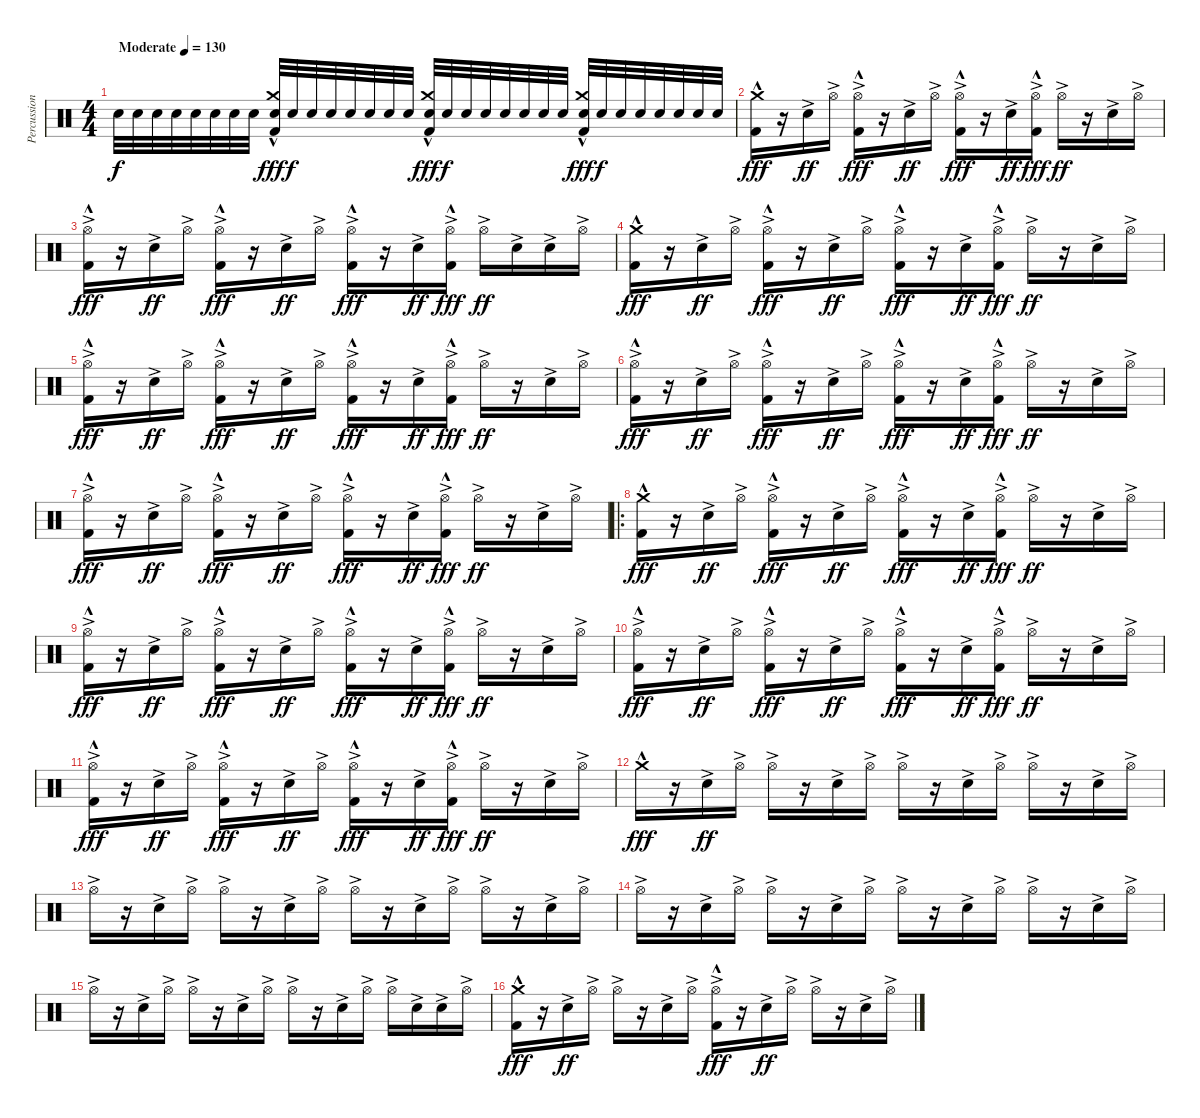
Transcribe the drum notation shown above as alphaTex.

\track ("Percussion" "Percussion") {instrument percussion}
\staff {score}
\articulation defaults
\ts (4 4)
\tempo (130 "Moderate")
\clef neutral
\ks c "Snare (hit) 2".32{dy f} "Snare (hit) 2".32 "Snare (hit) 2".32 "Snare (hit) 2".32 "Snare (hit) 2".32 "Snare (hit) 2".32 "Snare (hit) 2".32 "Snare (hit) 2".32
("Crash medium (hit)"{hac} "Snare (hit) 2" "Kick (hit) 2"{hac}).32{dy fff} "Snare (hit) 2".32{dy f} "Snare (hit) 2".32 "Snare (hit) 2".32 "Snare (hit) 2".32 "Snare (hit) 2".32 "Snare (hit) 2".32 "Snare (hit) 2".32 ("Crash medium (hit)"{hac} "Snare (hit) 2" "Kick (hit) 2"{hac}).32{dy fff} "Snare (hit) 2".32{dy f} "Snare (hit) 2".32 "Snare (hit) 2".32 "Snare (hit) 2".32 "Snare (hit) 2".32 "Snare (hit) 2".32 "Snare (hit) 2".32 ("Crash medium (hit)"{hac} "Snare (hit) 2" "Kick (hit) 2"{hac}).32{dy fff} "Snare (hit) 2".32{dy f} "Snare (hit) 2".32 "Snare (hit) 2".32 "Snare (hit) 2".32 "Snare (hit) 2".32 "Snare (hit) 2".32 "Snare (hit) 2".32 |
("Crash medium (hit)"{hac} "Kick (hit) 2"{hac}).16{dy fff} r.16 "Snare (hit) 2"{ac}.16{dy ff} "Hi-Hat (open)"{ac}.16 ("Hi-Hat (open)"{ac} "Kick (hit) 2"{hac}).16{dy fff} r.16 "Snare (hit) 2"{ac}.16{dy ff} "Hi-Hat (open)"{ac}.16 ("Hi-Hat (open)"{ac} "Kick (hit) 2"{hac}).16{dy fff} r.16 "Snare (hit) 2"{ac}.16{dy ff} ("Hi-Hat (open)"{ac} "Kick (hit) 2"{hac}).16{dy fff} "Hi-Hat (open)"{ac}.16{dy ff} r.16 "Snare (hit) 2"{ac}.16 "Hi-Hat (open)"{ac}.16 |
("Hi-Hat (open)"{ac} "Kick (hit) 2"{hac}).16{dy fff} r.16 "Snare (hit) 2"{ac}.16{dy ff} "Hi-Hat (open)"{ac}.16 ("Hi-Hat (open)"{ac} "Kick (hit) 2"{hac}).16{dy fff} r.16 "Snare (hit) 2"{ac}.16{dy ff} "Hi-Hat (open)"{ac}.16 ("Hi-Hat (open)"{ac} "Kick (hit) 2"{hac}).16{dy fff} r.16 "Snare (hit) 2"{ac}.16{dy ff} ("Hi-Hat (open)"{ac} "Kick (hit) 2"{hac}).16{dy fff} "Hi-Hat (open)"{ac}.16{dy ff} "Snare (hit) 2"{ac}.16 "Snare (hit) 2"{ac}.16 "Hi-Hat (open)"{ac}.16 |
("Crash medium (hit)"{hac} "Kick (hit) 2"{hac}).16{dy fff} r.16 "Snare (hit) 2"{ac}.16{dy ff} "Hi-Hat (open)"{ac}.16 ("Hi-Hat (open)"{ac} "Kick (hit) 2"{hac}).16{dy fff} r.16 "Snare (hit) 2"{ac}.16{dy ff} "Hi-Hat (open)"{ac}.16 ("Hi-Hat (open)"{ac} "Kick (hit) 2"{hac}).16{dy fff} r.16 "Snare (hit) 2"{ac}.16{dy ff} ("Hi-Hat (open)"{ac} "Kick (hit) 2"{hac}).16{dy fff} "Hi-Hat (open)"{ac}.16{dy ff} r.16 "Snare (hit) 2"{ac}.16 "Hi-Hat (open)"{ac}.16 |
("Hi-Hat (open)"{ac} "Kick (hit) 2"{hac}).16{dy fff} r.16 "Snare (hit) 2"{ac}.16{dy ff} "Hi-Hat (open)"{ac}.16 ("Hi-Hat (open)"{ac} "Kick (hit) 2"{hac}).16{dy fff} r.16 "Snare (hit) 2"{ac}.16{dy ff} "Hi-Hat (open)"{ac}.16 ("Hi-Hat (open)"{ac} "Kick (hit) 2"{hac}).16{dy fff} r.16 "Snare (hit) 2"{ac}.16{dy ff} ("Hi-Hat (open)"{ac} "Kick (hit) 2"{hac}).16{dy fff} "Hi-Hat (open)"{ac}.16{dy ff} r.16 "Snare (hit) 2"{ac}.16 "Hi-Hat (open)"{ac}.16 |
("Hi-Hat (open)"{ac} "Kick (hit) 2"{hac}).16{dy fff} r.16 "Snare (hit) 2"{ac}.16{dy ff} "Hi-Hat (open)"{ac}.16 ("Hi-Hat (open)"{ac} "Kick (hit) 2"{hac}).16{dy fff} r.16 "Snare (hit) 2"{ac}.16{dy ff} "Hi-Hat (open)"{ac}.16 ("Hi-Hat (open)"{ac} "Kick (hit) 2"{hac}).16{dy fff} r.16 "Snare (hit) 2"{ac}.16{dy ff} ("Hi-Hat (open)"{ac} "Kick (hit) 2"{hac}).16{dy fff} "Hi-Hat (open)"{ac}.16{dy ff} r.16 "Snare (hit) 2"{ac}.16 "Hi-Hat (open)"{ac}.16 |
("Hi-Hat (open)"{ac} "Kick (hit) 2"{hac}).16{dy fff} r.16 "Snare (hit) 2"{ac}.16{dy ff} "Hi-Hat (open)"{ac}.16 ("Hi-Hat (open)"{ac} "Kick (hit) 2"{hac}).16{dy fff} r.16 "Snare (hit) 2"{ac}.16{dy ff} "Hi-Hat (open)"{ac}.16 ("Hi-Hat (open)"{ac} "Kick (hit) 2"{hac}).16{dy fff} r.16 "Snare (hit) 2"{ac}.16{dy ff} ("Hi-Hat (open)"{ac} "Kick (hit) 2"{hac}).16{dy fff} "Hi-Hat (open)"{ac}.16{dy ff} r.16 "Snare (hit) 2"{ac}.16 "Hi-Hat (open)"{ac}.16 |
\ro
("Crash medium (hit)"{hac} "Kick (hit) 2"{hac}).16{dy fff} r.16 "Snare (hit) 2"{ac}.16{dy ff} "Hi-Hat (open)"{ac}.16 ("Hi-Hat (open)"{ac} "Kick (hit) 2"{hac}).16{dy fff} r.16 "Snare (hit) 2"{ac}.16{dy ff} "Hi-Hat (open)"{ac}.16 ("Hi-Hat (open)"{ac} "Kick (hit) 2"{hac}).16{dy fff} r.16 "Snare (hit) 2"{ac}.16{dy ff} ("Hi-Hat (open)"{ac} "Kick (hit) 2"{hac}).16{dy fff} "Hi-Hat (open)"{ac}.16{dy ff} r.16 "Snare (hit) 2"{ac}.16 "Hi-Hat (open)"{ac}.16 |
("Hi-Hat (open)"{ac} "Kick (hit) 2"{hac}).16{dy fff} r.16 "Snare (hit) 2"{ac}.16{dy ff} "Hi-Hat (open)"{ac}.16 ("Hi-Hat (open)"{ac} "Kick (hit) 2"{hac}).16{dy fff} r.16 "Snare (hit) 2"{ac}.16{dy ff} "Hi-Hat (open)"{ac}.16 ("Hi-Hat (open)"{ac} "Kick (hit) 2"{hac}).16{dy fff} r.16 "Snare (hit) 2"{ac}.16{dy ff} ("Hi-Hat (open)"{ac} "Kick (hit) 2"{hac}).16{dy fff} "Hi-Hat (open)"{ac}.16{dy ff} r.16 "Snare (hit) 2"{ac}.16 "Hi-Hat (open)"{ac}.16 |
("Hi-Hat (open)"{ac} "Kick (hit) 2"{hac}).16{dy fff} r.16 "Snare (hit) 2"{ac}.16{dy ff} "Hi-Hat (open)"{ac}.16 ("Hi-Hat (open)"{ac} "Kick (hit) 2"{hac}).16{dy fff} r.16 "Snare (hit) 2"{ac}.16{dy ff} "Hi-Hat (open)"{ac}.16 ("Hi-Hat (open)"{ac} "Kick (hit) 2"{hac}).16{dy fff} r.16 "Snare (hit) 2"{ac}.16{dy ff} ("Hi-Hat (open)"{ac} "Kick (hit) 2"{hac}).16{dy fff} "Hi-Hat (open)"{ac}.16{dy ff} r.16 "Snare (hit) 2"{ac}.16 "Hi-Hat (open)"{ac}.16 |
("Hi-Hat (open)"{ac} "Kick (hit) 2"{hac}).16{dy fff} r.16 "Snare (hit) 2"{ac}.16{dy ff} "Hi-Hat (open)"{ac}.16 ("Hi-Hat (open)"{ac} "Kick (hit) 2"{hac}).16{dy fff} r.16 "Snare (hit) 2"{ac}.16{dy ff} "Hi-Hat (open)"{ac}.16 ("Hi-Hat (open)"{ac} "Kick (hit) 2"{hac}).16{dy fff} r.16 "Snare (hit) 2"{ac}.16{dy ff} ("Hi-Hat (open)"{ac} "Kick (hit) 2"{hac}).16{dy fff} "Hi-Hat (open)"{ac}.16{dy ff} r.16 "Snare (hit) 2"{ac}.16 "Hi-Hat (open)"{ac}.16 |
"Crash medium (hit)"{hac}.16{dy fff} r.16 "Snare (hit) 2"{ac}.16{dy ff} "Hi-Hat (open)"{ac}.16 "Hi-Hat (open)"{ac}.16 r.16 "Snare (hit) 2"{ac}.16 "Hi-Hat (open)"{ac}.16 "Hi-Hat (open)"{ac}.16 r.16 "Snare (hit) 2"{ac}.16 "Hi-Hat (open)"{ac}.16 "Hi-Hat (open)"{ac}.16 r.16 "Snare (hit) 2"{ac}.16 "Hi-Hat (open)"{ac}.16 |
"Hi-Hat (open)"{ac}.16 r.16 "Snare (hit) 2"{ac}.16 "Hi-Hat (open)"{ac}.16 "Hi-Hat (open)"{ac}.16 r.16 "Snare (hit) 2"{ac}.16 "Hi-Hat (open)"{ac}.16 "Hi-Hat (open)"{ac}.16 r.16 "Snare (hit) 2"{ac}.16 "Hi-Hat (open)"{ac}.16 "Hi-Hat (open)"{ac}.16 r.16 "Snare (hit) 2"{ac}.16 "Hi-Hat (open)"{ac}.16 |
"Hi-Hat (open)"{ac}.16 r.16 "Snare (hit) 2"{ac}.16 "Hi-Hat (open)"{ac}.16 "Hi-Hat (open)"{ac}.16 r.16 "Snare (hit) 2"{ac}.16 "Hi-Hat (open)"{ac}.16 "Hi-Hat (open)"{ac}.16 r.16 "Snare (hit) 2"{ac}.16 "Hi-Hat (open)"{ac}.16 "Hi-Hat (open)"{ac}.16 r.16 "Snare (hit) 2"{ac}.16 "Hi-Hat (open)"{ac}.16 |
"Hi-Hat (open)"{ac}.16 r.16 "Snare (hit) 2"{ac}.16 "Hi-Hat (open)"{ac}.16 "Hi-Hat (open)"{ac}.16 r.16 "Snare (hit) 2"{ac}.16 "Hi-Hat (open)"{ac}.16 "Hi-Hat (open)"{ac}.16 r.16 "Snare (hit) 2"{ac}.16 "Hi-Hat (open)"{ac}.16 "Hi-Hat (open)"{ac}.16 "Snare (hit) 2"{ac}.16 "Snare (hit) 2"{ac}.16 "Hi-Hat (open)"{ac}.16 |
("Crash medium (hit)"{hac} "Kick (hit) 2"{hac}).16{dy fff} r.16 "Snare (hit) 2"{ac}.16{dy ff} "Hi-Hat (open)"{ac}.16 "Hi-Hat (open)"{ac}.16 r.16 "Snare (hit) 2"{ac}.16 "Hi-Hat (open)"{ac}.16 ("Hi-Hat (open)"{ac} "Kick (hit) 2"{hac}).16{dy fff} r.16 "Snare (hit) 2"{ac}.16{dy ff} "Hi-Hat (open)"{ac}.16 "Hi-Hat (open)"{ac}.16 r.16 "Snare (hit) 2"{ac}.16 "Hi-Hat (open)"{ac}.16
